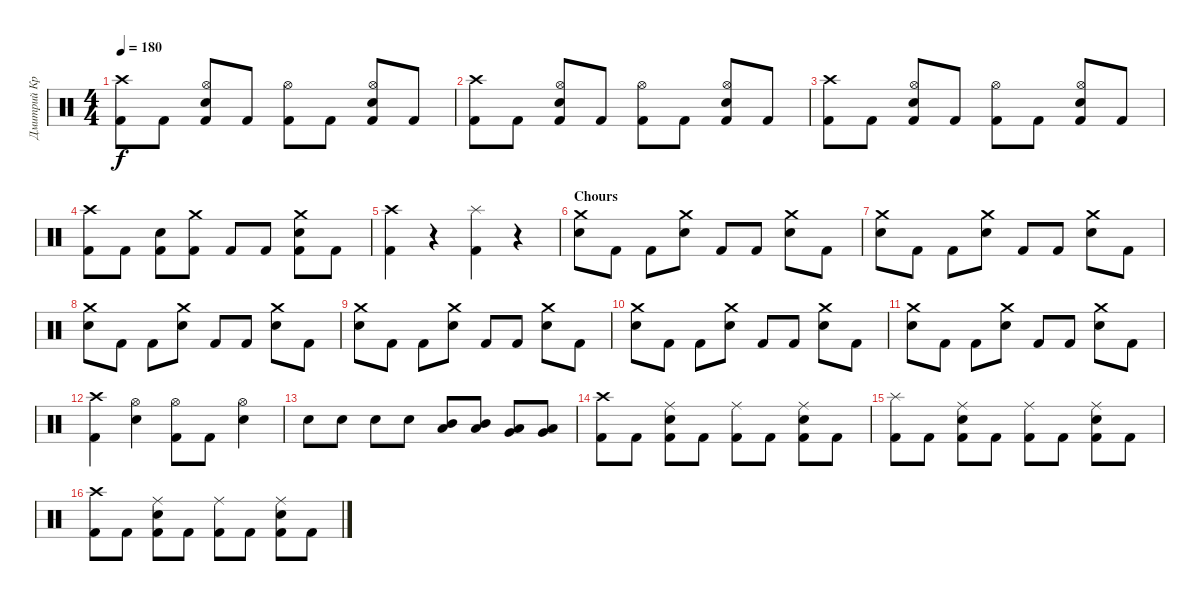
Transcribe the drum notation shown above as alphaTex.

\track ("Дмитрий Кривенков" "Дмитрий Кр") {instrument percussion}
\staff {score}
\articulation defaults
\ts (4 4)
\tempo 180
\clef neutral
\ks c
("Kick (hit) 2" "Crash high (hit)").8{dy f} "Kick (hit) 2".8 ("Hi-Hat (open)" "Electric Snare (hit)" "Kick (hit) 2").8 "Kick (hit) 2".8 ("Hi-Hat (open)" "Kick (hit) 2").8 "Kick (hit) 2".8 ("Kick (hit) 2" "Electric Snare (hit)" "Hi-Hat (open)").8 "Kick (hit) 2".8 |
("Kick (hit) 2" "Crash high (hit)").8 "Kick (hit) 2".8 ("Hi-Hat (open)" "Electric Snare (hit)" "Kick (hit) 2").8 "Kick (hit) 2".8 ("Hi-Hat (open)" "Kick (hit) 2").8 "Kick (hit) 2".8 ("Kick (hit) 2" "Electric Snare (hit)" "Hi-Hat (open)").8 "Kick (hit) 2".8 |
("Kick (hit) 2" "Crash high (hit)").8 "Kick (hit) 2".8 ("Hi-Hat (open)" "Electric Snare (hit)" "Kick (hit) 2").8 "Kick (hit) 2".8 ("Hi-Hat (open)" "Kick (hit) 2").8 "Kick (hit) 2".8 ("Kick (hit) 2" "Electric Snare (hit)" "Hi-Hat (open)").8 "Kick (hit) 2".8 |
("Crash high (hit)" "Kick (hit) 2").8 "Kick (hit) 2".8 ("Kick (hit) 2" "Electric Snare (hit)").8 ("Crash medium (hit)" "Kick (hit) 2").8 "Kick (hit) 2".8 "Kick (hit) 2".8 ("Kick (hit) 2" "Electric Snare (hit)" "Crash medium (hit)").8 "Kick (hit) 2".8 |
("Crash high (hit)" "Kick (hit) 2").4 r.4 ("Splash (hit)" "Kick (hit) 2").4 r.4 |
\section ("" "Chours")
("Crash medium (hit)" "Electric Snare (hit)").8 "Kick (hit) 2".8 "Kick (hit) 2".8 ("Electric Snare (hit)" "Crash medium (hit)").8 "Kick (hit) 2".8 "Kick (hit) 2".8 ("Crash medium (hit)" "Electric Snare (hit)").8 "Kick (hit) 2".8 |
("Crash medium (hit)" "Electric Snare (hit)").8 "Kick (hit) 2".8 "Kick (hit) 2".8 ("Electric Snare (hit)" "Crash medium (hit)").8 "Kick (hit) 2".8 "Kick (hit) 2".8 ("Crash medium (hit)" "Electric Snare (hit)").8 "Kick (hit) 2".8 |
("Crash medium (hit)" "Electric Snare (hit)").8 "Kick (hit) 2".8 "Kick (hit) 2".8 ("Electric Snare (hit)" "Crash medium (hit)").8 "Kick (hit) 2".8 "Kick (hit) 2".8 ("Crash medium (hit)" "Electric Snare (hit)").8 "Kick (hit) 2".8 |
("Crash medium (hit)" "Electric Snare (hit)").8 "Kick (hit) 2".8 "Kick (hit) 2".8 ("Electric Snare (hit)" "Crash medium (hit)").8 "Kick (hit) 2".8 "Kick (hit) 2".8 ("Crash medium (hit)" "Electric Snare (hit)").8 "Kick (hit) 2".8 |
("Crash medium (hit)" "Electric Snare (hit)").8 "Kick (hit) 2".8 "Kick (hit) 2".8 ("Electric Snare (hit)" "Crash medium (hit)").8 "Kick (hit) 2".8 "Kick (hit) 2".8 ("Crash medium (hit)" "Electric Snare (hit)").8 "Kick (hit) 2".8 |
("Crash medium (hit)" "Electric Snare (hit)").8 "Kick (hit) 2".8 "Kick (hit) 2".8 ("Electric Snare (hit)" "Crash medium (hit)").8 "Kick (hit) 2".8 "Kick (hit) 2".8 ("Crash medium (hit)" "Electric Snare (hit)").8 "Kick (hit) 2".8 |
("Kick (hit) 2" "Crash high (hit)").4 ("Hi-Hat (open)" "Electric Snare (hit)").4 ("Kick (hit) 2" "Hi-Hat (open)").8 "Kick (hit) 2".8 ("Hi-Hat (open)" "Electric Snare (hit)").4 |
"Electric Snare (hit)".8 "Electric Snare (hit)".8 "Electric Snare (hit)".8 "Electric Snare (hit)".8 ("Low Tom (hit)" "Mid Tom (hit)").8 ("Mid Tom (hit)" "Low Tom (hit)").8 ("Very Low Tom (hit)" "Low Tom (hit)").8 ("Low Tom (hit)" "Very Low Tom (hit)").8 |
("Kick (hit) 2" "Crash high (hit)").8 "Kick (hit) 2".8 ("Kick (hit) 2" "Electric Snare (hit)" "Ride (middle)").8 "Kick (hit) 2".8 ("Kick (hit) 2" "Ride (middle)").8 "Kick (hit) 2".8 ("Ride (middle)" "Electric Snare (hit)" "Kick (hit) 2").8 "Kick (hit) 2".8 |
("Kick (hit) 2" "Splash (hit)").8 "Kick (hit) 2".8 ("Kick (hit) 2" "Electric Snare (hit)" "Ride (middle)").8 "Kick (hit) 2".8 ("Ride (middle)" "Kick (hit) 2").8 "Kick (hit) 2".8 ("Ride (middle)" "Electric Snare (hit)" "Kick (hit) 2").8 "Kick (hit) 2".8 |
("Kick (hit) 2" "Crash high (hit)").8 "Kick (hit) 2".8 ("Kick (hit) 2" "Electric Snare (hit)" "Ride (middle)").8 "Kick (hit) 2".8 ("Kick (hit) 2" "Ride (middle)").8 "Kick (hit) 2".8 ("Ride (middle)" "Electric Snare (hit)" "Kick (hit) 2").8 "Kick (hit) 2".8
